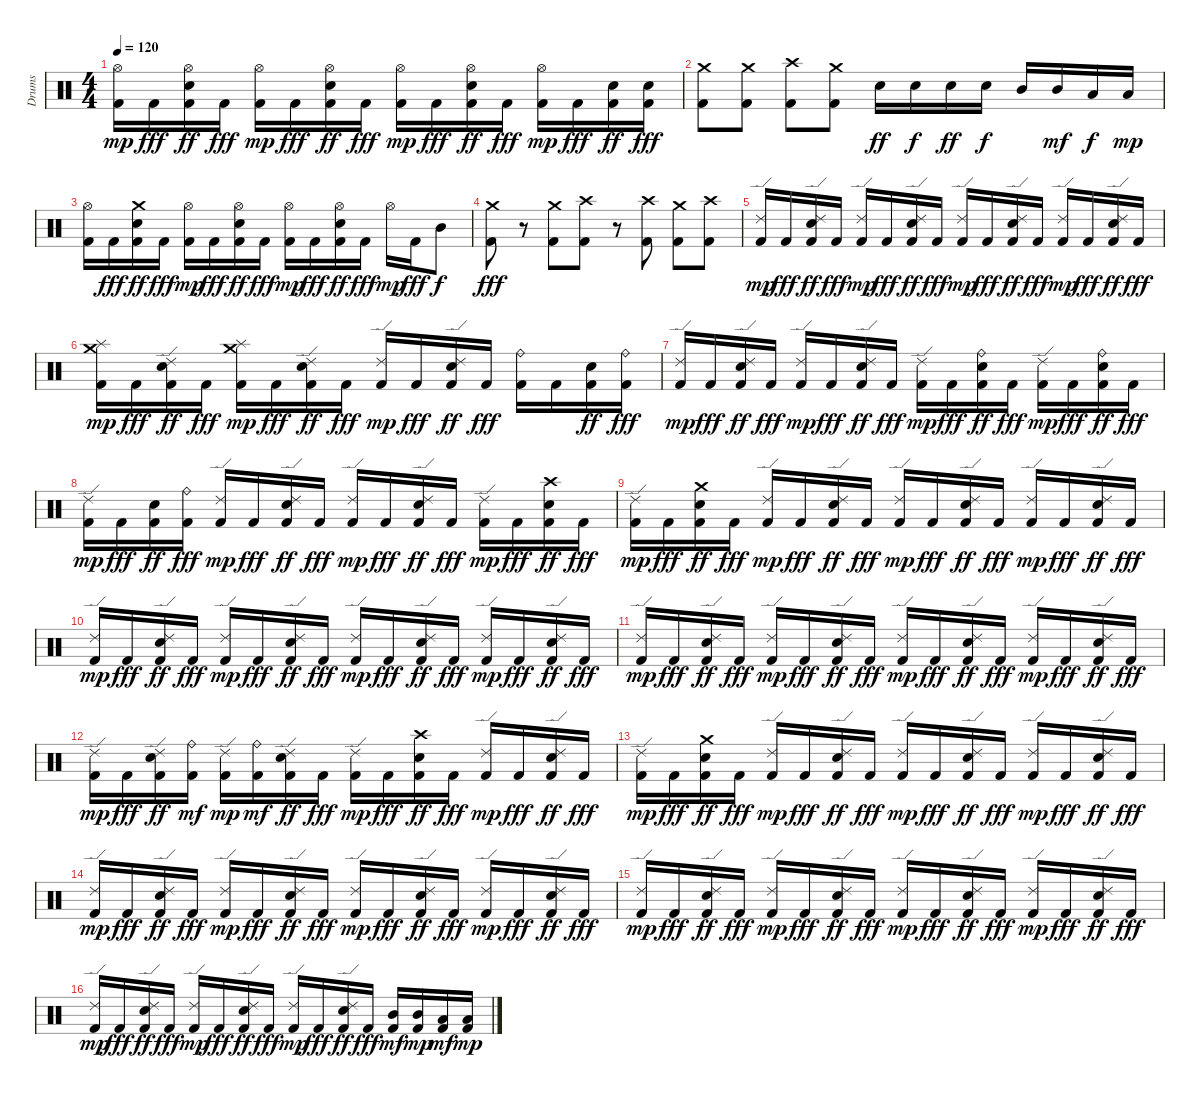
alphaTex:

\track ("Drums" "Drums") {instrument percussion}
\staff {score}
\articulation defaults
\ts (4 4)
\tempo 120
\clef neutral
\ks c
("Kick (hit) 2" "Hi-Hat (open)").16{dy mp} "Kick (hit) 2".16{dy fff} ("Kick (hit) 2" "Hi-Hat (open)" "Snare (hit) 2").16{dy ff} "Kick (hit) 2".16{dy fff} ("Kick (hit) 2" "Hi-Hat (open)").16{dy mp} "Kick (hit) 2".16{dy fff} ("Kick (hit) 2" "Hi-Hat (open)" "Snare (hit) 2").16{dy ff} "Kick (hit) 2".16{dy fff} ("Kick (hit) 2" "Hi-Hat (open)").16{dy mp} "Kick (hit) 2".16{dy fff} ("Kick (hit) 2" "Hi-Hat (open)" "Snare (hit) 2").16{dy ff} "Kick (hit) 2".16{dy fff} ("Kick (hit) 2" "Hi-Hat (open)").16{dy mp} "Kick (hit) 2".16{dy fff} ("Kick (hit) 2" "Snare (hit) 2").16{dy ff} ("Kick (hit) 2" "Snare (hit) 2").16{dy fff} |
("Crash medium (hit)" "Kick (hit) 2").8 ("Crash medium (hit)" "Kick (hit) 2").8 ("Crash high (hit)" "Kick (hit) 2").8 ("Crash medium (hit)" "Kick (hit) 2").8 "Snare (hit) 2".16{dy ff} "Snare (hit) 2".16{dy f} "Snare (hit) 2".16{dy ff} "Snare (hit) 2".16{dy f} "Mid Tom (hit)".16 "Mid Tom (hit)".16{dy mf} "Low Tom (hit)".16{dy f} "Low Tom (hit)".16{dy mp} |
("Kick (hit) 2" "Hi-Hat (open)").16 "Kick (hit) 2".16{dy fff} ("Kick (hit) 2" "Crash medium (hit)" "Snare (hit) 2").16{dy ff} "Kick (hit) 2".16{dy fff} ("Kick (hit) 2" "Hi-Hat (open)").16{dy mp} "Kick (hit) 2".16{dy fff} ("Kick (hit) 2" "Hi-Hat (open)" "Snare (hit) 2").16{dy ff} "Kick (hit) 2".16{dy fff} ("Kick (hit) 2" "Hi-Hat (open)").16{dy mp} "Kick (hit) 2".16{dy fff} ("Kick (hit) 2" "Hi-Hat (open)" "Snare (hit) 2").16{dy ff} "Kick (hit) 2".16{dy fff} "Hi-Hat (open)".16{dy mp} "Kick (hit) 2".16{dy fff} "Mid Tom (hit)".8{dy f} |
("Crash medium (hit)" "Kick (hit) 2").8{dy fff} r.8 ("Crash medium (hit)" "Kick (hit) 2").8 ("Crash high (hit)" "Kick (hit) 2").8 r.8 ("Crash high (hit)" "Kick (hit) 2").8 ("Crash medium (hit)" "Kick (hit) 2").8 ("Crash high (hit)" "Kick (hit) 2").8 |
("Kick (hit) 2" "Ride (edge) 2").16{dy mp} "Kick (hit) 2".16{dy fff} ("Kick (hit) 2" "Ride (edge) 2" "Snare (hit) 2").16{dy ff} "Kick (hit) 2".16{dy fff} ("Kick (hit) 2" "Ride (edge) 2").16{dy mp} "Kick (hit) 2".16{dy fff} ("Kick (hit) 2" "Ride (edge) 2" "Snare (hit) 2").16{dy ff} "Kick (hit) 2".16{dy fff} ("Kick (hit) 2" "Ride (edge) 2").16{dy mp} "Kick (hit) 2".16{dy fff} ("Kick (hit) 2" "Ride (edge) 2" "Snare (hit) 2").16{dy ff} "Kick (hit) 2".16{dy fff} ("Kick (hit) 2" "Ride (edge) 2").16{dy mp} "Kick (hit) 2".16{dy fff} ("Kick (hit) 2" "Ride (edge) 2" "Snare (hit) 2").16{dy ff} "Kick (hit) 2".16{dy fff} |
("Kick (hit) 2" "Crash medium (hit)" "Splash (hit)").16{dy mp} "Kick (hit) 2".16{dy fff} ("Kick (hit) 2" "Ride (edge) 2" "Snare (hit) 2").16{dy ff} "Kick (hit) 2".16{dy fff} ("Kick (hit) 2" "Crash medium (hit)" "Splash (hit)").16{dy mp} "Kick (hit) 2".16{dy fff} ("Kick (hit) 2" "Ride (edge) 2" "Snare (hit) 2").16{dy ff} "Kick (hit) 2".16{dy fff} ("Kick (hit) 2" "Ride (edge) 2").16{dy mp} "Kick (hit) 2".16{dy fff} ("Kick (hit) 2" "Ride (edge) 2" "Snare (hit) 2").16{dy ff} "Kick (hit) 2".16{dy fff} ("Kick (hit) 2" "Ride (bell)").16 "Kick (hit) 2".16 ("Kick (hit) 2" "Snare (hit) 2").16{dy ff} ("Kick (hit) 2" "Ride (bell)").16{dy fff} |
("Kick (hit) 2" "Ride (edge) 2").16{dy mp} "Kick (hit) 2".16{dy fff} ("Kick (hit) 2" "Ride (edge) 2" "Snare (hit) 2").16{dy ff} "Kick (hit) 2".16{dy fff} ("Kick (hit) 2" "Ride (edge) 2").16{dy mp} "Kick (hit) 2".16{dy fff} ("Kick (hit) 2" "Ride (edge) 2" "Snare (hit) 2").16{dy ff} "Kick (hit) 2".16{dy fff} ("Kick (hit) 2" "Ride (edge) 2").16{dy mp} "Kick (hit) 2".16{dy fff} ("Kick (hit) 2" "Ride (bell)" "Snare (hit) 2").16{dy ff} "Kick (hit) 2".16{dy fff} ("Kick (hit) 2" "Ride (edge) 2").16{dy mp} "Kick (hit) 2".16{dy fff} ("Kick (hit) 2" "Ride (bell)" "Snare (hit) 2").16{dy ff} "Kick (hit) 2".16{dy fff} |
("Kick (hit) 2" "Ride (edge) 2").16{dy mp} "Kick (hit) 2".16{dy fff} ("Kick (hit) 2" "Snare (hit) 2").16{dy ff} ("Kick (hit) 2" "Ride (bell)").16{dy fff} ("Kick (hit) 2" "Ride (edge) 2").16{dy mp} "Kick (hit) 2".16{dy fff} ("Kick (hit) 2" "Ride (edge) 2" "Snare (hit) 2").16{dy ff} "Kick (hit) 2".16{dy fff} ("Kick (hit) 2" "Ride (edge) 2").16{dy mp} "Kick (hit) 2".16{dy fff} ("Kick (hit) 2" "Ride (edge) 2" "Snare (hit) 2").16{dy ff} "Kick (hit) 2".16{dy fff} ("Kick (hit) 2" "Ride (edge) 2").16{dy mp} "Kick (hit) 2".16{dy fff} ("Kick (hit) 2" "Crash high (hit)" "Snare (hit) 2").16{dy ff} "Kick (hit) 2".16{dy fff} |
("Kick (hit) 2" "Ride (edge) 2").16{dy mp} "Kick (hit) 2".16{dy fff} ("Kick (hit) 2" "Crash medium (hit)" "Snare (hit) 2").16{dy ff} "Kick (hit) 2".16{dy fff} ("Kick (hit) 2" "Ride (edge) 2").16{dy mp} "Kick (hit) 2".16{dy fff} ("Kick (hit) 2" "Ride (edge) 2" "Snare (hit) 2").16{dy ff} "Kick (hit) 2".16{dy fff} ("Kick (hit) 2" "Ride (edge) 2").16{dy mp} "Kick (hit) 2".16{dy fff} ("Kick (hit) 2" "Ride (edge) 2" "Snare (hit) 2").16{dy ff} "Kick (hit) 2".16{dy fff} ("Kick (hit) 2" "Ride (edge) 2").16{dy mp} "Kick (hit) 2".16{dy fff} ("Kick (hit) 2" "Ride (edge) 2" "Snare (hit) 2").16{dy ff} "Kick (hit) 2".16{dy fff} |
("Kick (hit) 2" "Ride (edge) 2").16{dy mp} "Kick (hit) 2".16{dy fff} ("Kick (hit) 2" "Ride (edge) 2" "Snare (hit) 2").16{dy ff} "Kick (hit) 2".16{dy fff} ("Kick (hit) 2" "Ride (edge) 2").16{dy mp} "Kick (hit) 2".16{dy fff} ("Kick (hit) 2" "Ride (edge) 2" "Snare (hit) 2").16{dy ff} "Kick (hit) 2".16{dy fff} ("Kick (hit) 2" "Ride (edge) 2").16{dy mp} "Kick (hit) 2".16{dy fff} ("Kick (hit) 2" "Ride (edge) 2" "Snare (hit) 2").16{dy ff} "Kick (hit) 2".16{dy fff} ("Kick (hit) 2" "Ride (edge) 2").16{dy mp} "Kick (hit) 2".16{dy fff} ("Kick (hit) 2" "Ride (edge) 2" "Snare (hit) 2").16{dy ff} "Kick (hit) 2".16{dy fff} |
("Kick (hit) 2" "Ride (edge) 2").16{dy mp} "Kick (hit) 2".16{dy fff} ("Kick (hit) 2" "Ride (edge) 2" "Snare (hit) 2").16{dy ff} "Kick (hit) 2".16{dy fff} ("Kick (hit) 2" "Ride (edge) 2").16{dy mp} "Kick (hit) 2".16{dy fff} ("Kick (hit) 2" "Ride (edge) 2" "Snare (hit) 2").16{dy ff} "Kick (hit) 2".16{dy fff} ("Kick (hit) 2" "Ride (edge) 2").16{dy mp} "Kick (hit) 2".16{dy fff} ("Kick (hit) 2" "Ride (edge) 2" "Snare (hit) 2").16{dy ff} "Kick (hit) 2".16{dy fff} ("Kick (hit) 2" "Ride (edge) 2").16{dy mp} "Kick (hit) 2".16{dy fff} ("Kick (hit) 2" "Ride (edge) 2" "Snare (hit) 2").16{dy ff} "Kick (hit) 2".16{dy fff} |
("Kick (hit) 2" "Ride (edge) 2").16{dy mp} "Kick (hit) 2".16{dy fff} ("Kick (hit) 2" "Ride (edge) 2" "Snare (hit) 2").16{dy ff} ("Kick (hit) 2" "Ride (bell)").16{dy mf} ("Kick (hit) 2" "Ride (edge) 2").16{dy mp} ("Kick (hit) 2" "Ride (bell)").16{dy mf} ("Kick (hit) 2" "Ride (edge) 2" "Snare (hit) 2").16{dy ff} "Kick (hit) 2".16{dy fff} ("Kick (hit) 2" "Ride (edge) 2").16{dy mp} "Kick (hit) 2".16{dy fff} ("Kick (hit) 2" "Crash high (hit)" "Snare (hit) 2").16{dy ff} "Kick (hit) 2".16{dy fff} ("Kick (hit) 2" "Ride (edge) 2").16{dy mp} "Kick (hit) 2".16{dy fff} ("Kick (hit) 2" "Ride (edge) 2" "Snare (hit) 2").16{dy ff} "Kick (hit) 2".16{dy fff} |
("Kick (hit) 2" "Ride (edge) 2").16{dy mp} "Kick (hit) 2".16{dy fff} ("Kick (hit) 2" "Crash medium (hit)" "Snare (hit) 2").16{dy ff} "Kick (hit) 2".16{dy fff} ("Kick (hit) 2" "Ride (edge) 2").16{dy mp} "Kick (hit) 2".16{dy fff} ("Kick (hit) 2" "Ride (edge) 2" "Snare (hit) 2").16{dy ff} "Kick (hit) 2".16{dy fff} ("Kick (hit) 2" "Ride (edge) 2").16{dy mp} "Kick (hit) 2".16{dy fff} ("Kick (hit) 2" "Ride (edge) 2" "Snare (hit) 2").16{dy ff} "Kick (hit) 2".16{dy fff} ("Kick (hit) 2" "Ride (edge) 2").16{dy mp} "Kick (hit) 2".16{dy fff} ("Kick (hit) 2" "Ride (edge) 2" "Snare (hit) 2").16{dy ff} "Kick (hit) 2".16{dy fff} |
("Kick (hit) 2" "Ride (edge) 2").16{dy mp} "Kick (hit) 2".16{dy fff} ("Kick (hit) 2" "Ride (edge) 2" "Snare (hit) 2").16{dy ff} "Kick (hit) 2".16{dy fff} ("Kick (hit) 2" "Ride (edge) 2").16{dy mp} "Kick (hit) 2".16{dy fff} ("Kick (hit) 2" "Ride (edge) 2" "Snare (hit) 2").16{dy ff} "Kick (hit) 2".16{dy fff} ("Kick (hit) 2" "Ride (edge) 2").16{dy mp} "Kick (hit) 2".16{dy fff} ("Kick (hit) 2" "Ride (edge) 2" "Snare (hit) 2").16{dy ff} "Kick (hit) 2".16{dy fff} ("Kick (hit) 2" "Ride (edge) 2").16{dy mp} "Kick (hit) 2".16{dy fff} ("Kick (hit) 2" "Ride (edge) 2" "Snare (hit) 2").16{dy ff} "Kick (hit) 2".16{dy fff} |
("Kick (hit) 2" "Ride (edge) 2").16{dy mp} "Kick (hit) 2".16{dy fff} ("Kick (hit) 2" "Ride (edge) 2" "Snare (hit) 2").16{dy ff} "Kick (hit) 2".16{dy fff} ("Kick (hit) 2" "Ride (edge) 2").16{dy mp} "Kick (hit) 2".16{dy fff} ("Kick (hit) 2" "Ride (edge) 2" "Snare (hit) 2").16{dy ff} "Kick (hit) 2".16{dy fff} ("Kick (hit) 2" "Ride (edge) 2").16{dy mp} "Kick (hit) 2".16{dy fff} ("Kick (hit) 2" "Ride (edge) 2" "Snare (hit) 2").16{dy ff} "Kick (hit) 2".16{dy fff} ("Kick (hit) 2" "Ride (edge) 2").16{dy mp} "Kick (hit) 2".16{dy fff} ("Kick (hit) 2" "Ride (edge) 2" "Snare (hit) 2").16{dy ff} "Kick (hit) 2".16{dy fff} |
("Kick (hit) 2" "Ride (edge) 2").16{dy mp} "Kick (hit) 2".16{dy fff} ("Kick (hit) 2" "Ride (edge) 2" "Snare (hit) 2").16{dy ff} "Kick (hit) 2".16{dy fff} ("Kick (hit) 2" "Ride (edge) 2").16{dy mp} "Kick (hit) 2".16{dy fff} ("Kick (hit) 2" "Ride (edge) 2" "Snare (hit) 2").16{dy ff} "Kick (hit) 2".16{dy fff} ("Kick (hit) 2" "Ride (edge) 2").16{dy mp} "Kick (hit) 2".16{dy fff} ("Kick (hit) 2" "Ride (edge) 2" "Snare (hit) 2").16{dy ff} "Kick (hit) 2".16{dy fff} ("Kick (hit) 2" "Mid Tom (hit)").16{dy mf} ("Kick (hit) 2" "Mid Tom (hit)").16{dy mp} ("Kick (hit) 2" "Low Tom (hit)").16{dy mf} ("Kick (hit) 2" "Low Tom (hit)").16{dy mp}
